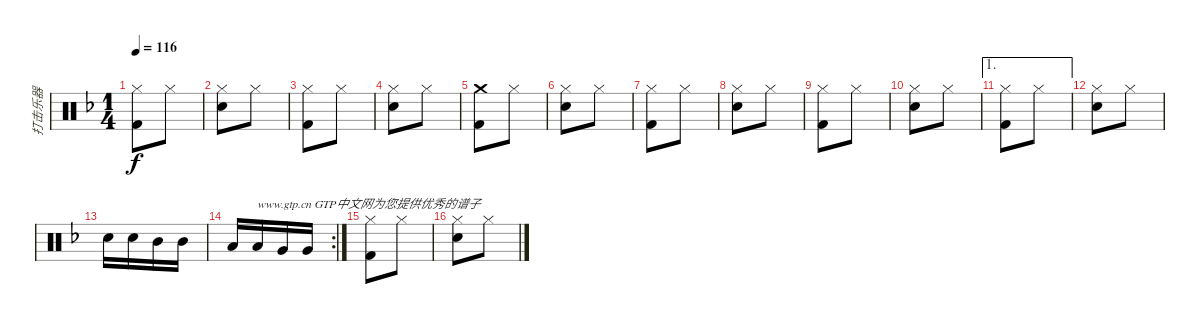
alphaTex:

\track ("打击乐器" "打击乐器") {instrument percussion}
\staff {score}
\articulation defaults
\ts (1 4)
\tempo 116
\clef neutral
\ks f
("Hi-Hat (closed)" "Kick (hit) 2").8{dy f} "Hi-Hat (closed)".8 |
("Hi-Hat (closed)" "Snare (hit) 2").8 "Hi-Hat (closed)".8 |
("Hi-Hat (closed)" "Kick (hit) 2").8 "Hi-Hat (closed)".8 |
("Hi-Hat (closed)" "Snare (hit) 2").8 "Hi-Hat (closed)".8 |
("Crash medium (hit)" "Kick (hit) 2").8 "Hi-Hat (closed)".8 |
("Hi-Hat (closed)" "Snare (hit) 2").8 "Hi-Hat (closed)".8 |
("Hi-Hat (closed)" "Kick (hit) 2").8 "Hi-Hat (closed)".8 |
("Hi-Hat (closed)" "Snare (hit) 2").8 "Hi-Hat (closed)".8 |
("Hi-Hat (closed)" "Kick (hit) 2").8 "Hi-Hat (closed)".8 |
("Hi-Hat (closed)" "Snare (hit) 2").8 "Hi-Hat (closed)".8 |
\ae 1
("Hi-Hat (closed)" "Kick (hit) 2").8 "Hi-Hat (closed)".8 |
("Hi-Hat (closed)" "Snare (hit) 2").8 "Hi-Hat (closed)".8 |
"Snare (hit) 2".16 "Snare (hit) 2".16 "Mid Tom (hit)".16 "Mid Tom (hit)".16 |
\rc 2 "Low Tom (hit)".16 "Low Tom (hit)".16{txt "www.gtp.cn GTP中文网为您提供优秀的谱子"} "Very Low Tom (hit)".16 "Very Low Tom (hit)".16
|
("Hi-Hat (closed)" "Kick (hit) 2").8 "Hi-Hat (closed)".8 |
("Hi-Hat (closed)" "Snare (hit) 2").8 "Hi-Hat (closed)".8
